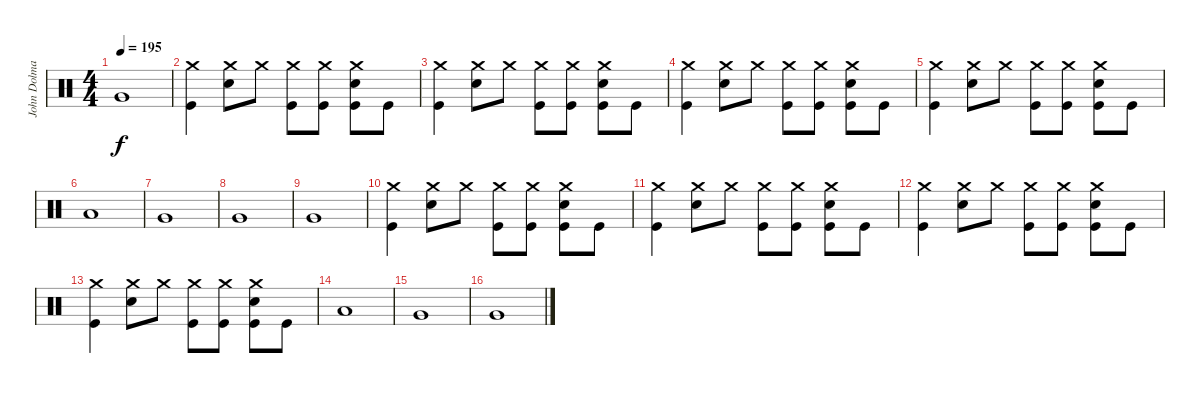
\track ("John Dolmayan" "John Dolma") {instrument percussion}
\staff {score}
\articulation defaults
\ts (4 4)
\tempo 195
\clef neutral
\ks c "Very Low Tom (hit)".1{dy f}
|
("Crash medium (hit)" "Kick (hit)").4 ("Crash medium (hit)" "Snare (hit) 2").8 "Crash medium (hit)".8 ("Crash medium (hit)" "Kick (hit)").8 ("Crash medium (hit)" "Kick (hit)").8 ("Crash medium (hit)" "Snare (hit) 2" "Kick (hit)").8 "Kick (hit)".8 |
("Crash medium (hit)" "Kick (hit)").4 ("Crash medium (hit)" "Snare (hit) 2").8 "Crash medium (hit)".8 ("Crash medium (hit)" "Kick (hit)").8 ("Crash medium (hit)" "Kick (hit)").8 ("Crash medium (hit)" "Snare (hit) 2" "Kick (hit)").8 "Kick (hit)".8 |
("Crash medium (hit)" "Kick (hit)").4 ("Crash medium (hit)" "Snare (hit) 2").8 "Crash medium (hit)".8 ("Crash medium (hit)" "Kick (hit)").8 ("Crash medium (hit)" "Kick (hit)").8 ("Crash medium (hit)" "Snare (hit) 2" "Kick (hit)").8 "Kick (hit)".8 |
("Crash medium (hit)" "Kick (hit)").4 ("Crash medium (hit)" "Snare (hit) 2").8 "Crash medium (hit)".8 ("Crash medium (hit)" "Kick (hit)").8 ("Crash medium (hit)" "Kick (hit)").8 ("Crash medium (hit)" "Snare (hit) 2" "Kick (hit)").8 "Kick (hit)".8 |
"Low Floor Tom (hit)".1 |
"Very Low Tom (hit)".1 |
"Very Low Tom (hit)".1 |
"Very Low Tom (hit)".1 |
("Crash medium (hit)" "Kick (hit)").4 ("Crash medium (hit)" "Snare (hit) 2").8 "Crash medium (hit)".8 ("Crash medium (hit)" "Kick (hit)").8 ("Crash medium (hit)" "Kick (hit)").8 ("Crash medium (hit)" "Snare (hit) 2" "Kick (hit)").8 "Kick (hit)".8 |
("Crash medium (hit)" "Kick (hit)").4 ("Crash medium (hit)" "Snare (hit) 2").8 "Crash medium (hit)".8 ("Crash medium (hit)" "Kick (hit)").8 ("Crash medium (hit)" "Kick (hit)").8 ("Crash medium (hit)" "Snare (hit) 2" "Kick (hit)").8 "Kick (hit)".8 |
("Crash medium (hit)" "Kick (hit)").4 ("Crash medium (hit)" "Snare (hit) 2").8 "Crash medium (hit)".8 ("Crash medium (hit)" "Kick (hit)").8 ("Crash medium (hit)" "Kick (hit)").8 ("Crash medium (hit)" "Snare (hit) 2" "Kick (hit)").8 "Kick (hit)".8 |
("Crash medium (hit)" "Kick (hit)").4 ("Crash medium (hit)" "Snare (hit) 2").8 "Crash medium (hit)".8 ("Crash medium (hit)" "Kick (hit)").8 ("Crash medium (hit)" "Kick (hit)").8 ("Crash medium (hit)" "Snare (hit) 2" "Kick (hit)").8 "Kick (hit)".8 |
"Low Floor Tom (hit)".1 |
"Very Low Tom (hit)".1 |
"Very Low Tom (hit)".1
